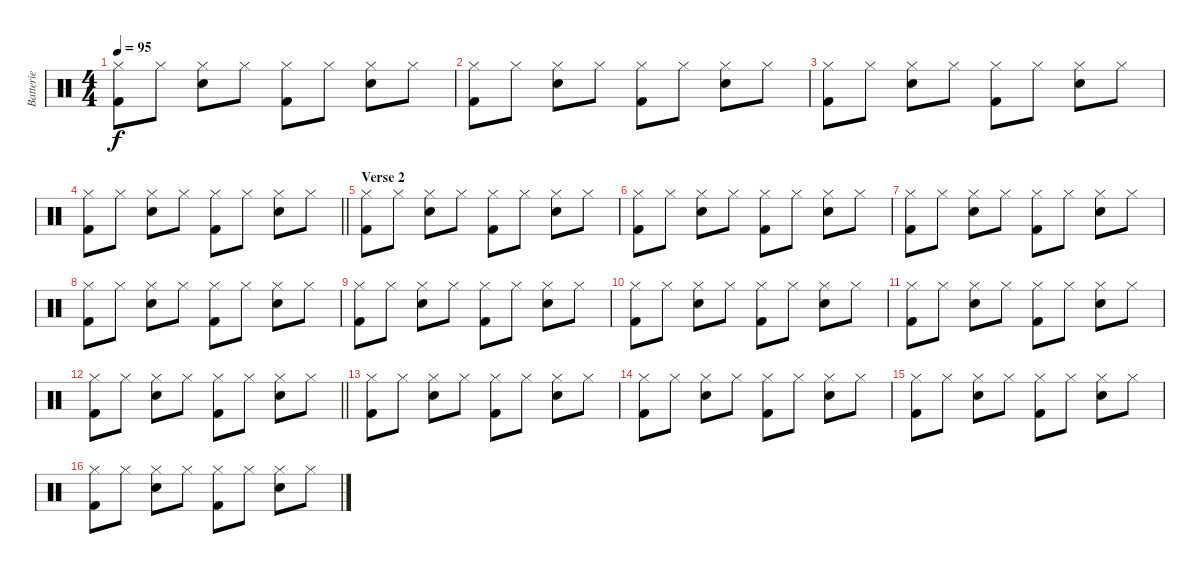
\track ("Batterie" "Batterie") {instrument percussion}
\staff {score}
\articulation defaults
\ts (4 4)
\tempo 95
\clef neutral
\ks c
("Hi-Hat (closed)" "Kick (hit) 2").8{dy f} "Hi-Hat (closed)".8 ("Hi-Hat (closed)" "Electric Snare (hit)").8 "Hi-Hat (closed)".8 ("Hi-Hat (closed)" "Kick (hit) 2").8 "Hi-Hat (closed)".8 ("Hi-Hat (closed)" "Electric Snare (hit)").8 "Hi-Hat (closed)".8 |
("Hi-Hat (closed)" "Kick (hit) 2").8 "Hi-Hat (closed)".8 ("Hi-Hat (closed)" "Electric Snare (hit)").8 "Hi-Hat (closed)".8 ("Hi-Hat (closed)" "Kick (hit) 2").8 "Hi-Hat (closed)".8 ("Hi-Hat (closed)" "Electric Snare (hit)").8 "Hi-Hat (closed)".8 |
("Hi-Hat (closed)" "Kick (hit) 2").8 "Hi-Hat (closed)".8 ("Hi-Hat (closed)" "Electric Snare (hit)").8 "Hi-Hat (closed)".8 ("Hi-Hat (closed)" "Kick (hit) 2").8 "Hi-Hat (closed)".8 ("Hi-Hat (closed)" "Electric Snare (hit)").8 "Hi-Hat (closed)".8 |
\barLineRight lightlight
("Hi-Hat (closed)" "Kick (hit) 2").8 "Hi-Hat (closed)".8 ("Hi-Hat (closed)" "Electric Snare (hit)").8 "Hi-Hat (closed)".8 ("Hi-Hat (closed)" "Kick (hit) 2").8 "Hi-Hat (closed)".8 ("Hi-Hat (closed)" "Electric Snare (hit)").8 "Hi-Hat (closed)".8 |
\section ("" "Verse 2")
("Hi-Hat (closed)" "Kick (hit) 2").8 "Hi-Hat (closed)".8 ("Hi-Hat (closed)" "Electric Snare (hit)").8 "Hi-Hat (closed)".8 ("Hi-Hat (closed)" "Kick (hit) 2").8 "Hi-Hat (closed)".8 ("Hi-Hat (closed)" "Electric Snare (hit)").8 "Hi-Hat (closed)".8 |
("Hi-Hat (closed)" "Kick (hit) 2").8 "Hi-Hat (closed)".8 ("Hi-Hat (closed)" "Electric Snare (hit)").8 "Hi-Hat (closed)".8 ("Hi-Hat (closed)" "Kick (hit) 2").8 "Hi-Hat (closed)".8 ("Hi-Hat (closed)" "Electric Snare (hit)").8 "Hi-Hat (closed)".8 |
("Hi-Hat (closed)" "Kick (hit) 2").8 "Hi-Hat (closed)".8 ("Hi-Hat (closed)" "Electric Snare (hit)").8 "Hi-Hat (closed)".8 ("Hi-Hat (closed)" "Kick (hit) 2").8 "Hi-Hat (closed)".8 ("Hi-Hat (closed)" "Electric Snare (hit)").8 "Hi-Hat (closed)".8 |
("Hi-Hat (closed)" "Kick (hit) 2").8 "Hi-Hat (closed)".8 ("Hi-Hat (closed)" "Electric Snare (hit)").8 "Hi-Hat (closed)".8 ("Hi-Hat (closed)" "Kick (hit) 2").8 "Hi-Hat (closed)".8 ("Hi-Hat (closed)" "Electric Snare (hit)").8 "Hi-Hat (closed)".8 |
("Hi-Hat (closed)" "Kick (hit) 2").8 "Hi-Hat (closed)".8 ("Hi-Hat (closed)" "Electric Snare (hit)").8 "Hi-Hat (closed)".8 ("Hi-Hat (closed)" "Kick (hit) 2").8 "Hi-Hat (closed)".8 ("Hi-Hat (closed)" "Electric Snare (hit)").8 "Hi-Hat (closed)".8 |
("Hi-Hat (closed)" "Kick (hit) 2").8 "Hi-Hat (closed)".8 ("Hi-Hat (closed)" "Electric Snare (hit)").8 "Hi-Hat (closed)".8 ("Hi-Hat (closed)" "Kick (hit) 2").8 "Hi-Hat (closed)".8 ("Hi-Hat (closed)" "Electric Snare (hit)").8 "Hi-Hat (closed)".8 |
("Hi-Hat (closed)" "Kick (hit) 2").8 "Hi-Hat (closed)".8 ("Hi-Hat (closed)" "Electric Snare (hit)").8 "Hi-Hat (closed)".8 ("Hi-Hat (closed)" "Kick (hit) 2").8 "Hi-Hat (closed)".8 ("Hi-Hat (closed)" "Electric Snare (hit)").8 "Hi-Hat (closed)".8 |
\barLineRight lightlight
("Hi-Hat (closed)" "Kick (hit) 2").8 "Hi-Hat (closed)".8 ("Hi-Hat (closed)" "Electric Snare (hit)").8 "Hi-Hat (closed)".8 ("Hi-Hat (closed)" "Kick (hit) 2").8 "Hi-Hat (closed)".8 ("Hi-Hat (closed)" "Electric Snare (hit)").8 "Hi-Hat (closed)".8 |
("Hi-Hat (closed)" "Kick (hit) 2").8 "Hi-Hat (closed)".8 ("Hi-Hat (closed)" "Electric Snare (hit)").8 "Hi-Hat (closed)".8 ("Hi-Hat (closed)" "Kick (hit) 2").8 "Hi-Hat (closed)".8 ("Hi-Hat (closed)" "Electric Snare (hit)").8 "Hi-Hat (closed)".8 |
("Hi-Hat (closed)" "Kick (hit) 2").8 "Hi-Hat (closed)".8 ("Hi-Hat (closed)" "Electric Snare (hit)").8 "Hi-Hat (closed)".8 ("Hi-Hat (closed)" "Kick (hit) 2").8 "Hi-Hat (closed)".8 ("Hi-Hat (closed)" "Electric Snare (hit)").8 "Hi-Hat (closed)".8 |
("Hi-Hat (closed)" "Kick (hit) 2").8 "Hi-Hat (closed)".8 ("Hi-Hat (closed)" "Electric Snare (hit)").8 "Hi-Hat (closed)".8 ("Hi-Hat (closed)" "Kick (hit) 2").8 "Hi-Hat (closed)".8 ("Hi-Hat (closed)" "Electric Snare (hit)").8 "Hi-Hat (closed)".8 |
("Hi-Hat (closed)" "Kick (hit) 2").8 "Hi-Hat (closed)".8 ("Hi-Hat (closed)" "Electric Snare (hit)").8 "Hi-Hat (closed)".8 ("Hi-Hat (closed)" "Kick (hit) 2").8 "Hi-Hat (closed)".8 ("Hi-Hat (closed)" "Electric Snare (hit)").8 "Hi-Hat (closed)".8
